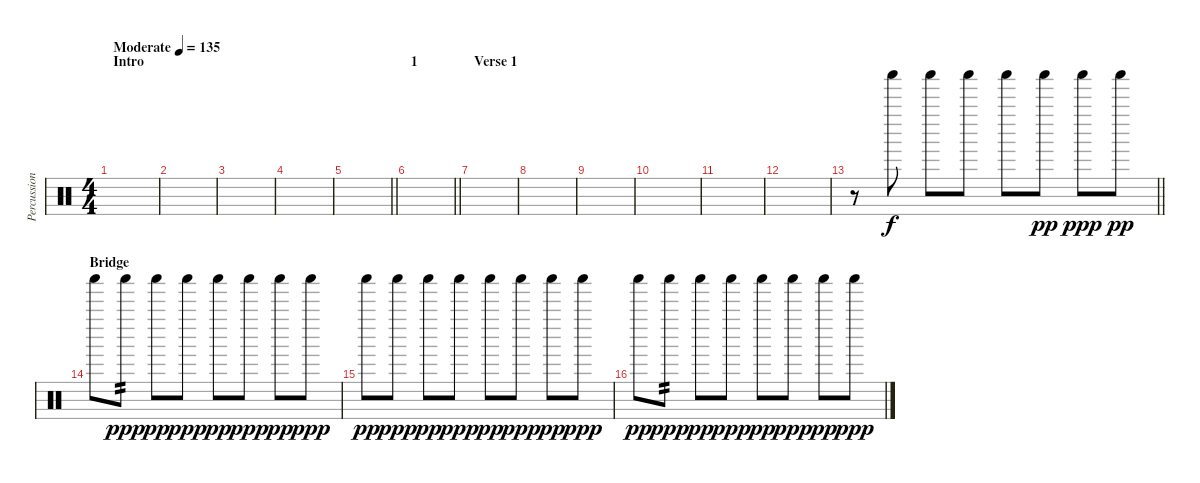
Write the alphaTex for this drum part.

\track ("Percussion" "Percussion") {instrument percussion}
\staff {score}
\articulation defaults
\ts (4 4)
\section ("" "Intro")
\tempo (135 "Moderate")
\clef neutral
\ks c
|
|
|
|
\barLineRight lightlight
|
\section ("" "1")
\barLineRight lightlight
|
\section ("" "Verse 1")
|
|
|
|
|
|
\barLineRight lightlight
r.8 "Shaker (hit)".8 "Shaker (hit)".8 "Shaker (hit)".8 "Shaker (hit)".8 "Shaker (hit)".8{dy pp} "Shaker (hit)".8{dy ppp} "Shaker (hit)".8{dy pp} |
\section ("" "Bridge")
"Shaker (hit)".8 "Shaker (hit)".8{tp 2 dy ppp} "Shaker (hit)".8{dy pp} "Shaker (hit)".8{dy ppp} "Shaker (hit)".8{dy pp} "Shaker (hit)".8{dy ppp} "Shaker (hit)".8{dy pp} "Shaker (hit)".8{dy ppp} |
"Shaker (hit)".8{dy pp} "Shaker (hit)".8{dy ppp} "Shaker (hit)".8{dy pp} "Shaker (hit)".8{dy ppp} "Shaker (hit)".8{dy pp} "Shaker (hit)".8{dy ppp} "Shaker (hit)".8{dy pp} "Shaker (hit)".8{dy ppp} |
"Shaker (hit)".8{dy pp} "Shaker (hit)".8{tp 2 dy ppp} "Shaker (hit)".8{dy pp} "Shaker (hit)".8{dy ppp} "Shaker (hit)".8{dy pp} "Shaker (hit)".8{dy ppp} "Shaker (hit)".8{dy pp} "Shaker (hit)".8{dy ppp}
